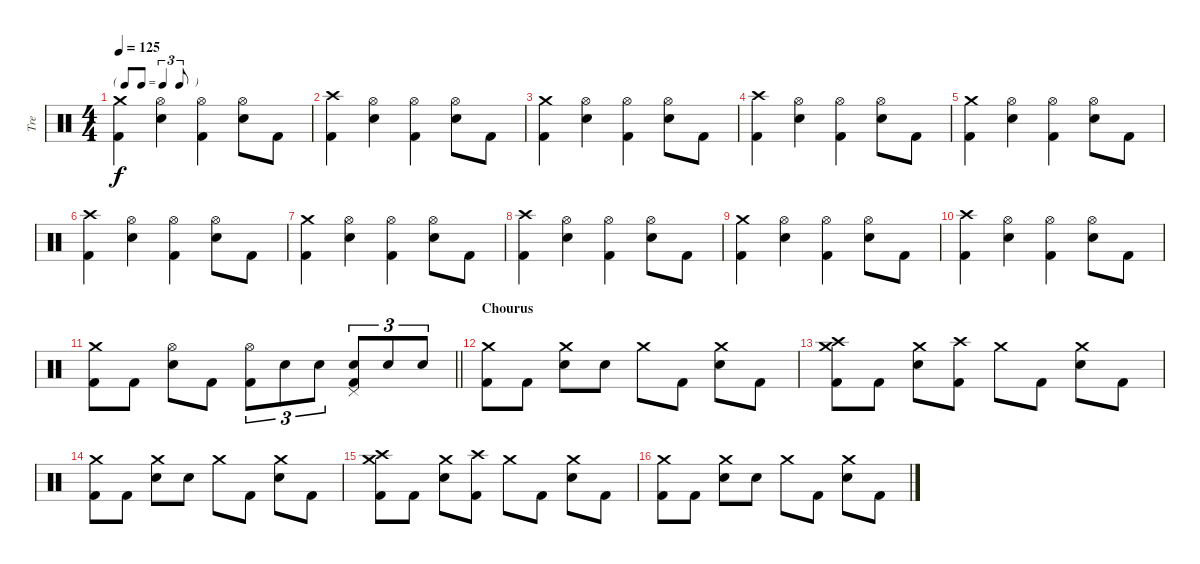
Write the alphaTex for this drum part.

\track ("Tre" "Tre") {instrument percussion}
\staff {score}
\articulation defaults
\ts (4 4)
\tf triplet8th
\tempo 125
\clef neutral
\ks c
("Crash medium (hit)" "Kick (hit) 2").4{dy f} ("Hi-Hat (open)" "Snare (hit) 2").4 ("Hi-Hat (open)" "Kick (hit) 2").4 ("Hi-Hat (open)" "Snare (hit) 2").8 "Kick (hit) 2".8 |
("Crash high (hit)" "Kick (hit) 2").4 ("Hi-Hat (open)" "Snare (hit) 2").4 ("Hi-Hat (open)" "Kick (hit) 2").4 ("Hi-Hat (open)" "Snare (hit) 2").8 "Kick (hit) 2".8 |
("Crash medium (hit)" "Kick (hit) 2").4 ("Hi-Hat (open)" "Snare (hit) 2").4 ("Hi-Hat (open)" "Kick (hit) 2").4 ("Hi-Hat (open)" "Snare (hit) 2").8 "Kick (hit) 2".8 |
("Crash high (hit)" "Kick (hit) 2").4 ("Hi-Hat (open)" "Snare (hit) 2").4 ("Hi-Hat (open)" "Kick (hit) 2").4 ("Hi-Hat (open)" "Snare (hit) 2").8 "Kick (hit) 2".8 |
("Crash medium (hit)" "Kick (hit) 2").4 ("Hi-Hat (open)" "Snare (hit) 2").4 ("Hi-Hat (open)" "Kick (hit) 2").4 ("Hi-Hat (open)" "Snare (hit) 2").8 "Kick (hit) 2".8 |
("Crash high (hit)" "Kick (hit) 2").4 ("Hi-Hat (open)" "Snare (hit) 2").4 ("Hi-Hat (open)" "Kick (hit) 2").4 ("Hi-Hat (open)" "Snare (hit) 2").8 "Kick (hit) 2".8 |
("Crash medium (hit)" "Kick (hit) 2").4 ("Hi-Hat (open)" "Snare (hit) 2").4 ("Hi-Hat (open)" "Kick (hit) 2").4 ("Hi-Hat (open)" "Snare (hit) 2").8 "Kick (hit) 2".8 |
("Crash high (hit)" "Kick (hit) 2").4 ("Hi-Hat (open)" "Snare (hit) 2").4 ("Hi-Hat (open)" "Kick (hit) 2").4 ("Hi-Hat (open)" "Snare (hit) 2").8 "Kick (hit) 2".8 |
("Crash medium (hit)" "Kick (hit) 2").4 ("Hi-Hat (open)" "Snare (hit) 2").4 ("Hi-Hat (open)" "Kick (hit) 2").4 ("Hi-Hat (open)" "Snare (hit) 2").8 "Kick (hit) 2".8 |
("Crash high (hit)" "Kick (hit) 2").4 ("Hi-Hat (open)" "Snare (hit) 2").4 ("Hi-Hat (open)" "Kick (hit) 2").4 ("Hi-Hat (open)" "Snare (hit) 2").8 "Kick (hit) 2".8 |
\barLineRight lightlight
("Crash medium (hit)" "Kick (hit) 2").8 "Kick (hit) 2".8 ("Hi-Hat (open)" "Snare (hit) 2").8 "Kick (hit) 2".8 ("Hi-Hat (open)" "Kick (hit) 2").8{tu (3 2)} "Snare (hit) 2".8{tu (3 2)} "Snare (hit) 2".8{tu (3 2)} ("Snare (hit) 2" "Pedal Hi-Hat (hit)" "Kick (hit) 2").8{tu (3 2)} "Snare (hit) 2".8{tu (3 2)} "Snare (hit) 2".8{tu (3 2)} |
\section ("" "Chourus")
("Crash medium (hit)" "Kick (hit) 2").8 "Kick (hit) 2".8 ("Crash medium (hit)" "Snare (hit) 2").8 "Snare (hit) 2".8 "Crash medium (hit)".8 "Kick (hit) 2".8 ("Crash medium (hit)" "Snare (hit) 2").8 "Kick (hit) 2".8 |
("Crash medium (hit)" "Crash high (hit)" "Kick (hit) 2").8 "Kick (hit) 2".8 ("Crash medium (hit)" "Snare (hit) 2").8 ("Crash high (hit)" "Kick (hit) 2").8 "Crash medium (hit)".8 "Kick (hit) 2".8 ("Crash medium (hit)" "Snare (hit) 2").8 "Kick (hit) 2".8 |
("Crash medium (hit)" "Kick (hit) 2").8 "Kick (hit) 2".8 ("Crash medium (hit)" "Snare (hit) 2").8 "Snare (hit) 2".8 "Crash medium (hit)".8 "Kick (hit) 2".8 ("Crash medium (hit)" "Snare (hit) 2").8 "Kick (hit) 2".8 |
("Crash medium (hit)" "Crash high (hit)" "Kick (hit) 2").8 "Kick (hit) 2".8 ("Crash medium (hit)" "Snare (hit) 2").8 ("Crash high (hit)" "Kick (hit) 2").8 "Crash medium (hit)".8 "Kick (hit) 2".8 ("Crash medium (hit)" "Snare (hit) 2").8 "Kick (hit) 2".8 |
("Crash medium (hit)" "Kick (hit) 2").8 "Kick (hit) 2".8 ("Crash medium (hit)" "Snare (hit) 2").8 "Snare (hit) 2".8 "Crash medium (hit)".8 "Kick (hit) 2".8 ("Crash medium (hit)" "Snare (hit) 2").8 "Kick (hit) 2".8
